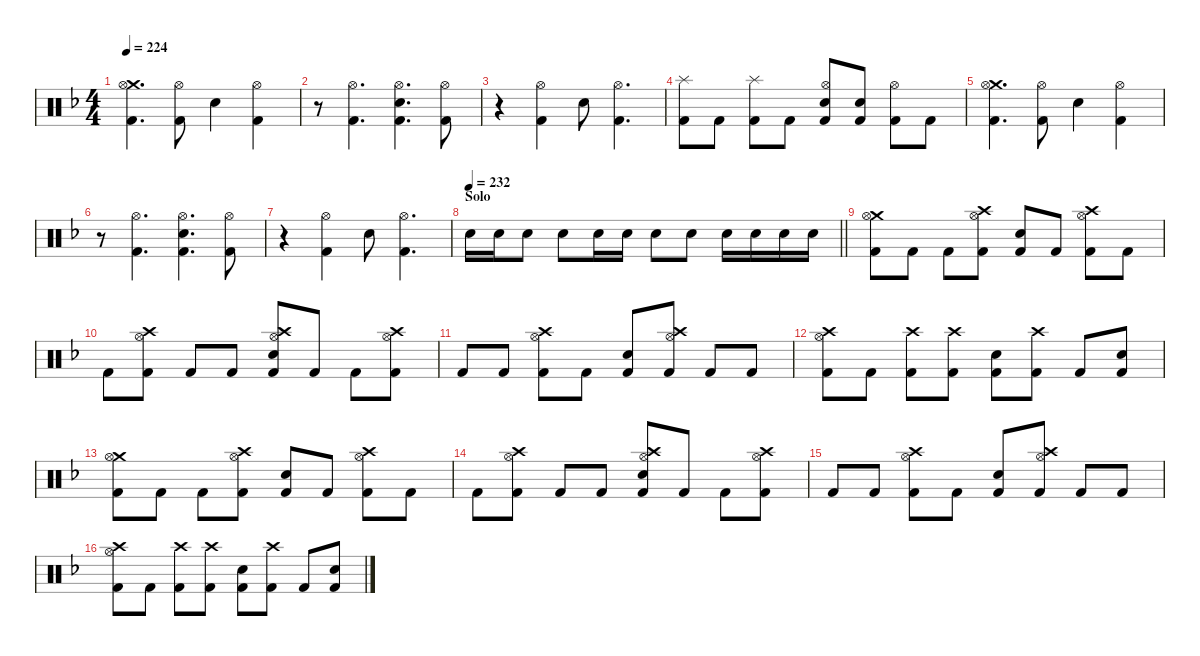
\hideDynamics
\bracketExtendMode nobrackets
\singleTrackTrackNamePolicy hidden
\multiTrackTrackNamePolicy hidden
\firstSystemTrackNameMode fullname
\firstSystemTrackNameOrientation horizontal
\otherSystemsTrackNameOrientation horizontal
\track ("Drumkit" "Drums") {defaultSystemsLayout 4 instrument percussion}
\staff {score}
\articulation defaults
\ts (4 4)
\tempo 224
\clef neutral
\ks dminor
("Crash medium (hit)"{acc forcenatural} "Hi-Hat (open)"{acc forcenatural} "Kick (hit) 2"{acc forcenatural}).4{d dy f beam Down} ("Hi-Hat (open)"{acc forcenatural} "Kick (hit) 2"{acc forcenatural}).8{beam Down} "Snare (hit) 2"{acc forcenatural}.4{beam Down} ("Hi-Hat (open)"{acc forcenatural} "Kick (hit) 2"{acc forcenatural}).4{beam Down} |
r.8{beam Down} ("Hi-Hat (open)"{acc forcenatural} "Kick (hit) 2"{acc forcenatural}).4{d beam Down} ("Hi-Hat (open)"{acc forcenatural} "Snare (hit) 2"{acc forcenatural} "Kick (hit) 2"{acc forcenatural}).4{d beam Down} ("Hi-Hat (open)"{acc forcenatural} "Kick (hit) 2"{acc forcenatural}).8{beam Down} |
r.4{beam Down} ("Hi-Hat (open)"{acc forcenatural} "Kick (hit) 2"{acc forcenatural}).4{beam Down} "Snare (hit) 2"{acc forcenatural}.8{beam Down} ("Hi-Hat (open)"{acc forcenatural} "Kick (hit) 2"{acc forcenatural}).4{d beam Down} |
("Splash (hit)"{acc forcenatural} "Kick (hit) 2"{acc forcenatural}).8{beam Down} "Kick (hit) 2"{acc forcenatural}.8{beam Down} ("Splash (hit)"{acc forcenatural} "Kick (hit) 2"{acc forcenatural}).8{beam Down} "Kick (hit) 2"{acc forcenatural}.8{beam Down} ("Hi-Hat (open)"{acc forcenatural} "Snare (hit) 2"{acc forcenatural} "Kick (hit) 2"{acc forcenatural}).8{beam Up} ("Snare (hit) 2"{acc forcenatural} "Kick (hit) 2"{acc forcenatural}).8{beam Up} ("Hi-Hat (open)"{acc forcenatural} "Kick (hit) 2"{acc forcenatural}).8{beam Down} "Kick (hit) 2"{acc forcenatural}.8{beam Down} |
("Crash medium (hit)"{acc forcenatural} "Hi-Hat (open)"{acc forcenatural} "Kick (hit) 2"{acc forcenatural}).4{d beam Down} ("Hi-Hat (open)"{acc forcenatural} "Kick (hit) 2"{acc forcenatural}).8{beam Down} "Snare (hit) 2"{acc forcenatural}.4{beam Down} ("Hi-Hat (open)"{acc forcenatural} "Kick (hit) 2"{acc forcenatural}).4{beam Down} |
r.8{beam Down} ("Hi-Hat (open)"{acc forcenatural} "Kick (hit) 2"{acc forcenatural}).4{d beam Down} ("Hi-Hat (open)"{acc forcenatural} "Snare (hit) 2"{acc forcenatural} "Kick (hit) 2"{acc forcenatural}).4{d beam Down} ("Hi-Hat (open)"{acc forcenatural} "Kick (hit) 2"{acc forcenatural}).8{beam Down} |
r.4{beam Down} ("Hi-Hat (open)"{acc forcenatural} "Kick (hit) 2"{acc forcenatural}).4{beam Down} "Snare (hit) 2"{acc forcenatural}.8{beam Down} ("Hi-Hat (open)"{acc forcenatural} "Kick (hit) 2"{acc forcenatural}).4{d beam Down} |
\section ("" "Solo")
\tempo 232
\barLineRight lightlight "Snare (hit) 2"{acc forcenatural}.16{beam Down} "Snare (hit) 2"{acc forcenatural}.16{beam Down} "Snare (hit) 2"{acc forcenatural}.8{beam Down} "Snare (hit) 2"{acc forcenatural}.8{beam Down} "Snare (hit) 2"{acc forcenatural}.16{beam Down} "Snare (hit) 2"{acc forcenatural}.16{beam Down} "Snare (hit) 2"{acc forcenatural}.8{beam Down} "Snare (hit) 2"{acc forcenatural}.8{beam Down} "Snare (hit) 2"{acc forcenatural}.16{beam Down} "Snare (hit) 2"{acc forcenatural}.16{beam Down} "Snare (hit) 2"{acc forcenatural}.16{beam Down} "Snare (hit) 2"{acc forcenatural}.16{beam Down}
|
("Crash medium (hit)"{acc forcenatural} "Hi-Hat (open)"{acc forcenatural} "Kick (hit) 2"{acc forcenatural}).8{beam Down} "Kick (hit) 2"{acc forcenatural}.8{beam Down} "Kick (hit) 2"{acc forcenatural}.8{beam Down} ("Crash high (hit)"{acc forcenatural} "Hi-Hat (open)"{acc forcenatural} "Kick (hit) 2"{acc forcenatural}).8{beam Down} ("Snare (hit) 2"{acc forcenatural} "Kick (hit) 2"{acc forcenatural}).8{beam Up} "Kick (hit) 2"{acc forcenatural}.8{beam Up} ("Crash high (hit)"{acc forcenatural} "Hi-Hat (open)"{acc forcenatural} "Kick (hit) 2"{acc forcenatural}).8{beam Down} "Kick (hit) 2"{acc forcenatural}.8{beam Down} |
"Kick (hit) 2"{acc forcenatural}.8{beam Down} ("Crash high (hit)"{acc forcenatural} "Hi-Hat (open)"{acc forcenatural} "Kick (hit) 2"{acc forcenatural}).8{beam Down} "Kick (hit) 2"{acc forcenatural}.8{beam Up} "Kick (hit) 2"{acc forcenatural}.8{beam Up} ("Crash high (hit)"{acc forcenatural} "Hi-Hat (open)"{acc forcenatural} "Snare (hit) 2"{acc forcenatural} "Kick (hit) 2"{acc forcenatural}).8{beam Up} "Kick (hit) 2"{acc forcenatural}.8{beam Up} "Kick (hit) 2"{acc forcenatural}.8{beam Down} ("Crash high (hit)"{acc forcenatural} "Hi-Hat (open)"{acc forcenatural} "Kick (hit) 2"{acc forcenatural}).8{beam Down} |
"Kick (hit) 2"{acc forcenatural}.8{beam Up} "Kick (hit) 2"{acc forcenatural}.8{beam Up} ("Crash high (hit)"{acc forcenatural} "Hi-Hat (open)"{acc forcenatural} "Kick (hit) 2"{acc forcenatural}).8{beam Down} "Kick (hit) 2"{acc forcenatural}.8{beam Down} ("Snare (hit) 2"{acc forcenatural} "Kick (hit) 2"{acc forcenatural}).8{beam Up} ("Crash high (hit)"{acc forcenatural} "Hi-Hat (open)"{acc forcenatural} "Kick (hit) 2"{acc forcenatural}).8{beam Up} "Kick (hit) 2"{acc forcenatural}.8{beam Up} "Kick (hit) 2"{acc forcenatural}.8{beam Up} |
("Crash high (hit)"{acc forcenatural} "Hi-Hat (open)"{acc forcenatural} "Kick (hit) 2"{acc forcenatural}).8{beam Down} "Kick (hit) 2"{acc forcenatural}.8{beam Down} ("Crash high (hit)"{acc forcenatural} "Kick (hit) 2"{acc forcenatural}).8{beam Down} ("Crash high (hit)"{acc forcenatural} "Kick (hit) 2"{acc forcenatural}).8{beam Down} ("Snare (hit) 2"{acc forcenatural} "Kick (hit) 2"{acc forcenatural}).8{beam Down} ("Crash high (hit)"{acc forcenatural} "Kick (hit) 2"{acc forcenatural}).8{beam Down} "Kick (hit) 2"{acc forcenatural}.8{beam Up} ("Snare (hit) 2"{acc forcenatural} "Kick (hit) 2"{acc forcenatural}).8{beam Up} |
("Crash medium (hit)"{acc forcenatural} "Hi-Hat (open)"{acc forcenatural} "Kick (hit) 2"{acc forcenatural}).8{beam Down} "Kick (hit) 2"{acc forcenatural}.8{beam Down} "Kick (hit) 2"{acc forcenatural}.8{beam Down} ("Crash high (hit)"{acc forcenatural} "Hi-Hat (open)"{acc forcenatural} "Kick (hit) 2"{acc forcenatural}).8{beam Down} ("Snare (hit) 2"{acc forcenatural} "Kick (hit) 2"{acc forcenatural}).8{beam Up} "Kick (hit) 2"{acc forcenatural}.8{beam Up} ("Crash high (hit)"{acc forcenatural} "Hi-Hat (open)"{acc forcenatural} "Kick (hit) 2"{acc forcenatural}).8{beam Down} "Kick (hit) 2"{acc forcenatural}.8{beam Down} |
"Kick (hit) 2"{acc forcenatural}.8{beam Down} ("Crash high (hit)"{acc forcenatural} "Hi-Hat (open)"{acc forcenatural} "Kick (hit) 2"{acc forcenatural}).8{beam Down} "Kick (hit) 2"{acc forcenatural}.8{beam Up} "Kick (hit) 2"{acc forcenatural}.8{beam Up} ("Crash high (hit)"{acc forcenatural} "Hi-Hat (open)"{acc forcenatural} "Snare (hit) 2"{acc forcenatural} "Kick (hit) 2"{acc forcenatural}).8{beam Up} "Kick (hit) 2"{acc forcenatural}.8{beam Up} "Kick (hit) 2"{acc forcenatural}.8{beam Down} ("Crash high (hit)"{acc forcenatural} "Hi-Hat (open)"{acc forcenatural} "Kick (hit) 2"{acc forcenatural}).8{beam Down} |
"Kick (hit) 2"{acc forcenatural}.8{beam Up} "Kick (hit) 2"{acc forcenatural}.8{beam Up} ("Crash high (hit)"{acc forcenatural} "Hi-Hat (open)"{acc forcenatural} "Kick (hit) 2"{acc forcenatural}).8{beam Down} "Kick (hit) 2"{acc forcenatural}.8{beam Down} ("Snare (hit) 2"{acc forcenatural} "Kick (hit) 2"{acc forcenatural}).8{beam Up} ("Crash high (hit)"{acc forcenatural} "Hi-Hat (open)"{acc forcenatural} "Kick (hit) 2"{acc forcenatural}).8{beam Up} "Kick (hit) 2"{acc forcenatural}.8{beam Up} "Kick (hit) 2"{acc forcenatural}.8{beam Up} |
("Crash high (hit)"{acc forcenatural} "Hi-Hat (open)"{acc forcenatural} "Kick (hit) 2"{acc forcenatural}).8{beam Down} "Kick (hit) 2"{acc forcenatural}.8{beam Down} ("Crash high (hit)"{acc forcenatural} "Kick (hit) 2"{acc forcenatural}).8{beam Down} ("Crash high (hit)"{acc forcenatural} "Kick (hit) 2"{acc forcenatural}).8{beam Down} ("Snare (hit) 2"{acc forcenatural} "Kick (hit) 2"{acc forcenatural}).8{beam Down} ("Crash high (hit)"{acc forcenatural} "Kick (hit) 2"{acc forcenatural}).8{beam Down} "Kick (hit) 2"{acc forcenatural}.8{beam Up} ("Snare (hit) 2"{acc forcenatural} "Kick (hit) 2"{acc forcenatural}).8{beam Up}
